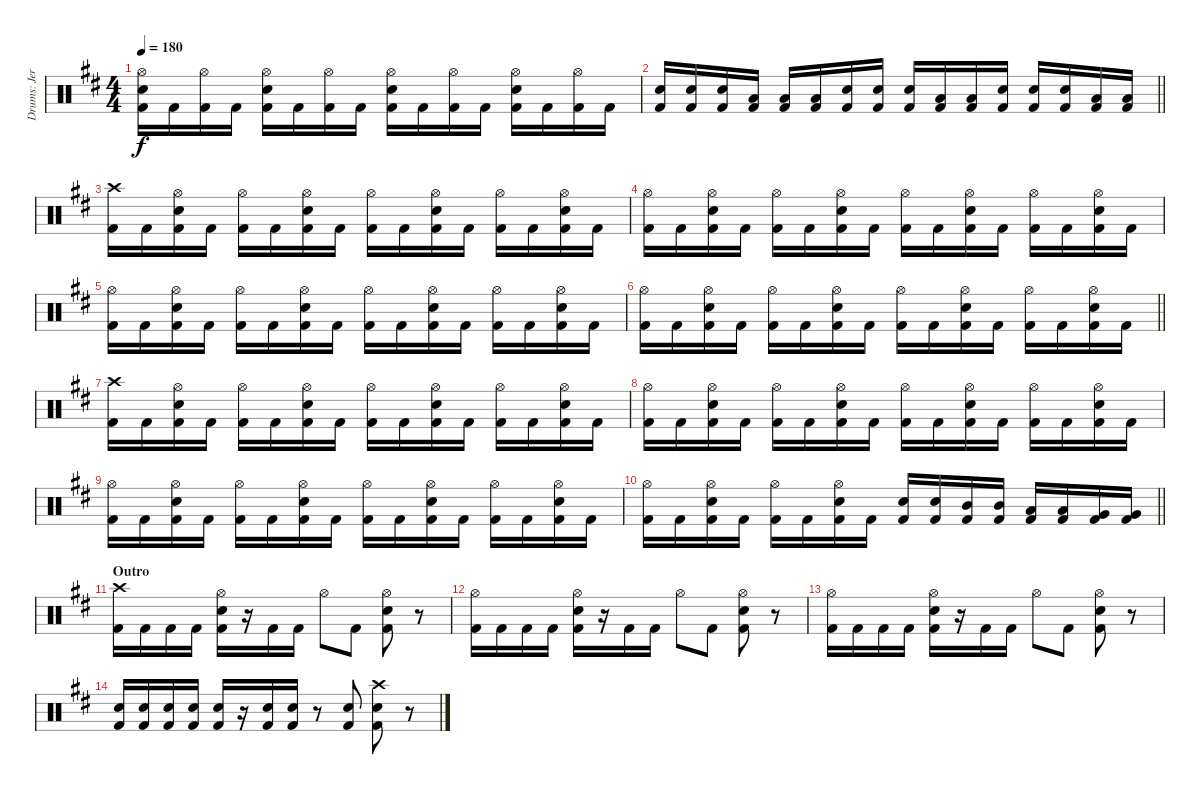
\track ("Drums: Jere Luokkamäki" "Drums: Jer") {instrument percussion}
\staff {score}
\articulation defaults
\ts (4 4)
\tempo 180
\clef neutral
\ks bminor
("Hi-Hat (open)" "Electric Snare (hit)" "Kick (hit) 2").16{dy f} "Kick (hit) 2".16 ("Hi-Hat (open)" "Kick (hit) 2").16 "Kick (hit) 2".16 ("Hi-Hat (open)" "Electric Snare (hit)" "Kick (hit) 2").16 "Kick (hit) 2".16 ("Hi-Hat (open)" "Kick (hit) 2").16 "Kick (hit) 2".16 ("Hi-Hat (open)" "Electric Snare (hit)" "Kick (hit) 2").16 "Kick (hit) 2".16 ("Hi-Hat (open)" "Kick (hit) 2").16 "Kick (hit) 2".16 ("Hi-Hat (open)" "Electric Snare (hit)" "Kick (hit) 2").16 "Kick (hit) 2".16 ("Hi-Hat (open)" "Kick (hit) 2").16 "Kick (hit) 2".16 |
\barLineRight lightlight
("Electric Snare (hit)" "Kick (hit) 2").16 ("Electric Snare (hit)" "Kick (hit) 2").16 ("Electric Snare (hit)" "Kick (hit) 2").16 ("Low Tom (hit)" "Kick (hit) 2").16 ("Low Tom (hit)" "Kick (hit) 2").16 ("Low Tom (hit)" "Kick (hit) 2").16 ("Electric Snare (hit)" "Kick (hit) 2").16 ("Electric Snare (hit)" "Kick (hit) 2").16 ("Electric Snare (hit)" "Kick (hit) 2").16 ("Low Tom (hit)" "Kick (hit) 2").16 ("Low Tom (hit)" "Kick (hit) 2").16 ("Electric Snare (hit)" "Kick (hit) 2").16 ("Electric Snare (hit)" "Kick (hit) 2").16 ("Electric Snare (hit)" "Kick (hit) 2").16 ("Low Tom (hit)" "Kick (hit) 2").16 ("Low Tom (hit)" "Kick (hit) 2").16 |
("Crash high (hit)" "Kick (hit) 2").16 "Kick (hit) 2".16 ("Hi-Hat (open)" "Electric Snare (hit)" "Kick (hit) 2").16 "Kick (hit) 2".16 ("Hi-Hat (open)" "Kick (hit) 2").16 "Kick (hit) 2".16 ("Hi-Hat (open)" "Electric Snare (hit)" "Kick (hit) 2").16 "Kick (hit) 2".16 ("Hi-Hat (open)" "Kick (hit) 2").16 "Kick (hit) 2".16 ("Hi-Hat (open)" "Electric Snare (hit)" "Kick (hit) 2").16 "Kick (hit) 2".16 ("Hi-Hat (open)" "Kick (hit) 2").16 "Kick (hit) 2".16 ("Hi-Hat (open)" "Electric Snare (hit)" "Kick (hit) 2").16 "Kick (hit) 2".16 |
("Hi-Hat (open)" "Kick (hit) 2").16 "Kick (hit) 2".16 ("Hi-Hat (open)" "Electric Snare (hit)" "Kick (hit) 2").16 "Kick (hit) 2".16 ("Hi-Hat (open)" "Kick (hit) 2").16 "Kick (hit) 2".16 ("Hi-Hat (open)" "Electric Snare (hit)" "Kick (hit) 2").16 "Kick (hit) 2".16 ("Hi-Hat (open)" "Kick (hit) 2").16 "Kick (hit) 2".16 ("Hi-Hat (open)" "Electric Snare (hit)" "Kick (hit) 2").16 "Kick (hit) 2".16 ("Hi-Hat (open)" "Kick (hit) 2").16 "Kick (hit) 2".16 ("Hi-Hat (open)" "Electric Snare (hit)" "Kick (hit) 2").16 "Kick (hit) 2".16 |
("Hi-Hat (open)" "Kick (hit) 2").16 "Kick (hit) 2".16 ("Hi-Hat (open)" "Electric Snare (hit)" "Kick (hit) 2").16 "Kick (hit) 2".16 ("Hi-Hat (open)" "Kick (hit) 2").16 "Kick (hit) 2".16 ("Hi-Hat (open)" "Electric Snare (hit)" "Kick (hit) 2").16 "Kick (hit) 2".16 ("Hi-Hat (open)" "Kick (hit) 2").16 "Kick (hit) 2".16 ("Hi-Hat (open)" "Electric Snare (hit)" "Kick (hit) 2").16 "Kick (hit) 2".16 ("Hi-Hat (open)" "Kick (hit) 2").16 "Kick (hit) 2".16 ("Hi-Hat (open)" "Electric Snare (hit)" "Kick (hit) 2").16 "Kick (hit) 2".16 |
\barLineRight lightlight
("Hi-Hat (open)" "Kick (hit) 2").16 "Kick (hit) 2".16 ("Hi-Hat (open)" "Electric Snare (hit)" "Kick (hit) 2").16 "Kick (hit) 2".16 ("Hi-Hat (open)" "Kick (hit) 2").16 "Kick (hit) 2".16 ("Hi-Hat (open)" "Electric Snare (hit)" "Kick (hit) 2").16 "Kick (hit) 2".16 ("Hi-Hat (open)" "Kick (hit) 2").16 "Kick (hit) 2".16 ("Hi-Hat (open)" "Electric Snare (hit)" "Kick (hit) 2").16 "Kick (hit) 2".16 ("Hi-Hat (open)" "Kick (hit) 2").16 "Kick (hit) 2".16 ("Hi-Hat (open)" "Electric Snare (hit)" "Kick (hit) 2").16 "Kick (hit) 2".16 |
("Crash high (hit)" "Kick (hit) 2").16 "Kick (hit) 2".16 ("Hi-Hat (open)" "Electric Snare (hit)" "Kick (hit) 2").16 "Kick (hit) 2".16 ("Hi-Hat (open)" "Kick (hit) 2").16 "Kick (hit) 2".16 ("Hi-Hat (open)" "Electric Snare (hit)" "Kick (hit) 2").16 "Kick (hit) 2".16 ("Hi-Hat (open)" "Kick (hit) 2").16 "Kick (hit) 2".16 ("Hi-Hat (open)" "Electric Snare (hit)" "Kick (hit) 2").16 "Kick (hit) 2".16 ("Hi-Hat (open)" "Kick (hit) 2").16 "Kick (hit) 2".16 ("Hi-Hat (open)" "Electric Snare (hit)" "Kick (hit) 2").16 "Kick (hit) 2".16 |
("Hi-Hat (open)" "Kick (hit) 2").16 "Kick (hit) 2".16 ("Hi-Hat (open)" "Electric Snare (hit)" "Kick (hit) 2").16 "Kick (hit) 2".16 ("Hi-Hat (open)" "Kick (hit) 2").16 "Kick (hit) 2".16 ("Hi-Hat (open)" "Electric Snare (hit)" "Kick (hit) 2").16 "Kick (hit) 2".16 ("Hi-Hat (open)" "Kick (hit) 2").16 "Kick (hit) 2".16 ("Hi-Hat (open)" "Electric Snare (hit)" "Kick (hit) 2").16 "Kick (hit) 2".16 ("Hi-Hat (open)" "Kick (hit) 2").16 "Kick (hit) 2".16 ("Hi-Hat (open)" "Electric Snare (hit)" "Kick (hit) 2").16 "Kick (hit) 2".16 |
("Hi-Hat (open)" "Kick (hit) 2").16 "Kick (hit) 2".16 ("Hi-Hat (open)" "Electric Snare (hit)" "Kick (hit) 2").16 "Kick (hit) 2".16 ("Hi-Hat (open)" "Kick (hit) 2").16 "Kick (hit) 2".16 ("Hi-Hat (open)" "Electric Snare (hit)" "Kick (hit) 2").16 "Kick (hit) 2".16 ("Hi-Hat (open)" "Kick (hit) 2").16 "Kick (hit) 2".16 ("Hi-Hat (open)" "Electric Snare (hit)" "Kick (hit) 2").16 "Kick (hit) 2".16 ("Hi-Hat (open)" "Kick (hit) 2").16 "Kick (hit) 2".16 ("Hi-Hat (open)" "Electric Snare (hit)" "Kick (hit) 2").16 "Kick (hit) 2".16 |
\barLineRight lightlight
("Hi-Hat (open)" "Kick (hit) 2").16 "Kick (hit) 2".16 ("Hi-Hat (open)" "Electric Snare (hit)" "Kick (hit) 2").16 "Kick (hit) 2".16 ("Hi-Hat (open)" "Kick (hit) 2").16 "Kick (hit) 2".16 ("Hi-Hat (open)" "Electric Snare (hit)" "Kick (hit) 2").16 "Kick (hit) 2".16 ("Electric Snare (hit)" "Kick (hit) 2").16 ("Electric Snare (hit)" "Kick (hit) 2").16 ("Mid Tom (hit)" "Kick (hit) 2").16 ("Mid Tom (hit)" "Kick (hit) 2").16 ("Low Tom (hit)" "Kick (hit) 2").16 ("Low Tom (hit)" "Kick (hit) 2").16 ("Very Low Tom (hit)" "Kick (hit) 2").16 ("Very Low Tom (hit)" "Kick (hit) 2").16 |
\section ("" "Outro")
("Crash high (hit)" "Kick (hit) 2").16 "Kick (hit) 2".16 "Kick (hit) 2".16 "Kick (hit) 2".16 ("Hi-Hat (open)" "Electric Snare (hit)" "Kick (hit) 2").16 r.16 "Kick (hit) 2".16 "Kick (hit) 2".16 "Hi-Hat (open)".8 "Kick (hit) 2".8 ("Hi-Hat (open)" "Electric Snare (hit)" "Kick (hit) 2").8 r.8 |
("Hi-Hat (open)" "Kick (hit) 2").16 "Kick (hit) 2".16 "Kick (hit) 2".16 "Kick (hit) 2".16 ("Hi-Hat (open)" "Electric Snare (hit)" "Kick (hit) 2").16 r.16 "Kick (hit) 2".16 "Kick (hit) 2".16 "Hi-Hat (open)".8 "Kick (hit) 2".8 ("Hi-Hat (open)" "Electric Snare (hit)" "Kick (hit) 2").8 r.8 |
("Hi-Hat (open)" "Kick (hit) 2").16 "Kick (hit) 2".16 "Kick (hit) 2".16 "Kick (hit) 2".16 ("Hi-Hat (open)" "Electric Snare (hit)" "Kick (hit) 2").16 r.16 "Kick (hit) 2".16 "Kick (hit) 2".16 "Hi-Hat (open)".8 "Kick (hit) 2".8 ("Hi-Hat (open)" "Electric Snare (hit)" "Kick (hit) 2").8 r.8 |
("Electric Snare (hit)" "Kick (hit) 2").16 ("Electric Snare (hit)" "Kick (hit) 2").16 ("Electric Snare (hit)" "Kick (hit) 2").16 ("Electric Snare (hit)" "Kick (hit) 2").16 ("Electric Snare (hit)" "Kick (hit) 2").16 r.16 ("Electric Snare (hit)" "Kick (hit) 2").16 ("Electric Snare (hit)" "Kick (hit) 2").16 r.8 ("Electric Snare (hit)" "Kick (hit) 2").8 ("Crash high (hit)" "Electric Snare (hit)" "Kick (hit) 2").8 r.8
